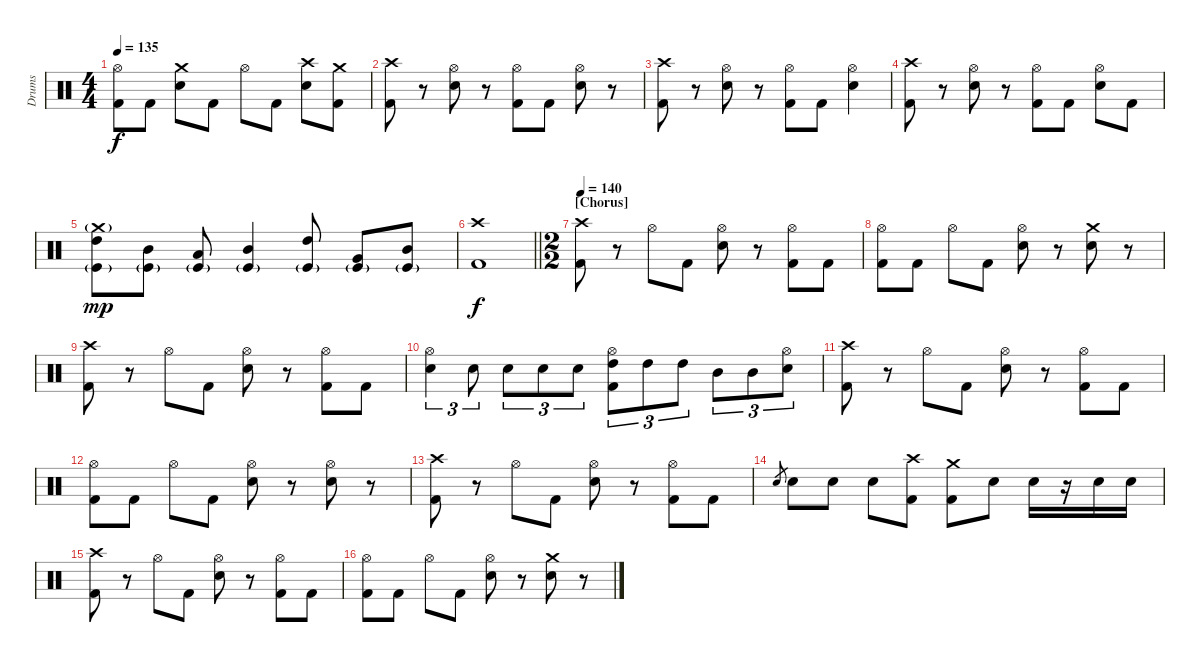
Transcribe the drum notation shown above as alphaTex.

\track ("Drums" "Drums") {instrument percussion}
\staff {score}
\articulation defaults
\ts (4 4)
\tempo 135
\clef neutral
\ks c
("Hi-Hat (open)" "Kick (hit) 2"{t}).8{dy f} "Kick (hit) 2".8 ("Crash medium (hit)" "Snare (hit) 2").8 "Kick (hit) 2".8 "Hi-Hat (open)".8 "Kick (hit) 2".8 ("Crash high (hit)" "Snare (hit) 2").8 ("Crash medium (hit)" "Kick (hit) 2").8 |
("Crash high (hit)" "Kick (hit) 2").8 r.8 ("Hi-Hat (open)" "Snare (hit) 2").8 r.8 ("Hi-Hat (open)" "Kick (hit) 2").8 "Kick (hit) 2".8 ("Hi-Hat (open)" "Snare (hit) 2").8 r.8 |
("Crash high (hit)" "Kick (hit) 2").8 r.8 ("Hi-Hat (open)" "Snare (hit) 2").8 r.8 ("Hi-Hat (open)" "Kick (hit) 2").8 "Kick (hit) 2".8 ("Hi-Hat (open)" "Snare (hit) 2").4 |
("Crash high (hit)" "Kick (hit) 2").8 r.8 ("Hi-Hat (open)" "Snare (hit) 2").8 r.8 ("Hi-Hat (open)" "Kick (hit) 2").8 "Kick (hit) 2".8 ("Hi-Hat (open)" "Snare (hit) 2").8 "Kick (hit) 2".8 |
("Crash medium (hit)"{g} "High Tom (hit)" "Kick (hit)"{g}).8{dy mp} ("Mid Tom (hit)" "Kick (hit)"{g}).8 ("Low Tom (hit)" "Kick (hit)"{g}).8 ("Mid Tom (hit)" "Kick (hit)"{g}).4 ("High Tom (hit)" "Kick (hit)"{g}).8 ("Very Low Tom (hit)" "Kick (hit)"{g}).8 ("Mid Tom (hit)" "Kick (hit)"{g}).8 |
\barLineRight lightlight
("Crash high (hit)" "Kick (hit) 2").1{dy f} |
\ts (2 2)
\section ("" "[Chorus]")
\tempo 140
("Crash high (hit)" "Kick (hit) 2").8 r.8 "Hi-Hat (open)".8 "Kick (hit) 2".8 ("Hi-Hat (open)" "Snare (hit) 2").8 r.8 ("Hi-Hat (open)" "Kick (hit) 2").8 "Kick (hit) 2".8 |
("Hi-Hat (open)" "Kick (hit) 2").8 "Kick (hit) 2".8 "Hi-Hat (open)".8 "Kick (hit) 2".8 ("Hi-Hat (open)" "Snare (hit) 2").8 r.8 ("Crash medium (hit)" "Snare (hit) 2").8 r.8 |
("Crash high (hit)" "Kick (hit) 2").8 r.8 "Hi-Hat (open)".8 "Kick (hit) 2".8 ("Hi-Hat (open)" "Snare (hit) 2").8 r.8 ("Hi-Hat (open)" "Kick (hit) 2").8 "Kick (hit) 2".8 |
("Hi-Hat (open)" "Snare (hit) 2").4{tu (3 2)} "Snare (hit) 2".8{tu (3 2)} "Snare (hit) 2".8{tu (3 2)} "Snare (hit) 2".8{tu (3 2)} "Snare (hit) 2".8{tu (3 2)} ("Hi-Hat (open)" "High Tom (hit)" "Kick (hit) 2").8{tu (3 2)} "High Tom (hit)".8{tu (3 2)} "High Tom (hit)".8{tu (3 2)} "Mid Tom (hit)".8{tu (3 2)} "Mid Tom (hit)".8{tu (3 2)} ("Hi-Hat (open)" "Snare (hit) 2").8{tu (3 2)} |
("Crash high (hit)" "Kick (hit) 2").8 r.8 "Hi-Hat (open)".8 "Kick (hit) 2".8 ("Hi-Hat (open)" "Snare (hit) 2").8 r.8 ("Hi-Hat (open)" "Kick (hit) 2").8 "Kick (hit) 2".8 |
("Hi-Hat (open)" "Kick (hit) 2").8 "Kick (hit) 2".8 "Hi-Hat (open)".8 "Kick (hit) 2".8 ("Hi-Hat (open)" "Snare (hit) 2").8 r.8 ("Hi-Hat (open)" "Snare (hit) 2").8 r.8 |
("Crash high (hit)" "Kick (hit) 2").8 r.8 "Hi-Hat (open)".8 "Kick (hit) 2".8 ("Hi-Hat (open)" "Snare (hit) 2").8 r.8 ("Hi-Hat (open)" "Kick (hit) 2").8 "Kick (hit) 2".8 |
"Snare (hit) 2".8{gr} "Snare (hit) 2".8 "Snare (hit) 2".8 "Snare (hit) 2".8 ("Crash high (hit)" "Kick (hit) 2").8 ("Crash medium (hit)" "Kick (hit) 2").8 "Snare (hit) 2".8 "Snare (hit) 2".16 r.16 "Snare (hit) 2".16 "Snare (hit) 2".16 |
("Crash high (hit)" "Kick (hit) 2").8 r.8 "Hi-Hat (open)".8 "Kick (hit) 2".8 ("Hi-Hat (open)" "Snare (hit) 2").8 r.8 ("Hi-Hat (open)" "Kick (hit) 2").8 "Kick (hit) 2".8 |
("Hi-Hat (open)" "Kick (hit) 2").8 "Kick (hit) 2".8 "Hi-Hat (open)".8 "Kick (hit) 2".8 ("Hi-Hat (open)" "Snare (hit) 2").8 r.8 ("Crash medium (hit)" "Snare (hit) 2").8 r.8
